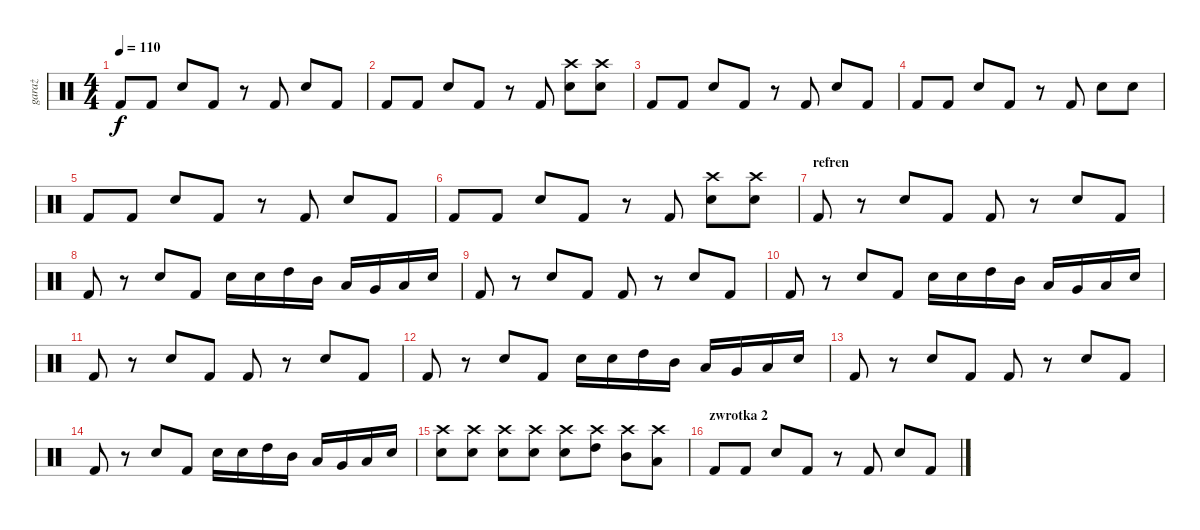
\track ("garaż" "garaż") {instrument percussion}
\staff {score}
\articulation defaults
\ts (4 4)
\tempo 110
\clef neutral
\ks c "Kick (hit) 2".8{dy f} "Kick (hit) 2".8 "Snare (hit) 2".8 "Kick (hit) 2".8
r.8 "Kick (hit) 2".8 "Snare (hit) 2".8 "Kick (hit) 2".8 |
"Kick (hit) 2".8 "Kick (hit) 2".8 "Snare (hit) 2".8 "Kick (hit) 2".8 r.8 "Kick (hit) 2".8 ("Crash high (hit)" "Snare (hit) 2").8 ("Crash high (hit)" "Snare (hit) 2").8 |
"Kick (hit) 2".8 "Kick (hit) 2".8 "Snare (hit) 2".8 "Kick (hit) 2".8 r.8 "Kick (hit) 2".8 "Snare (hit) 2".8 "Kick (hit) 2".8 |
"Kick (hit) 2".8 "Kick (hit) 2".8 "Snare (hit) 2".8 "Kick (hit) 2".8 r.8 "Kick (hit) 2".8 "Snare (hit) 2".8 "Snare (hit) 2".8 |
"Kick (hit) 2".8 "Kick (hit) 2".8 "Snare (hit) 2".8 "Kick (hit) 2".8 r.8 "Kick (hit) 2".8 "Snare (hit) 2".8 "Kick (hit) 2".8 |
"Kick (hit) 2".8 "Kick (hit) 2".8 "Snare (hit) 2".8 "Kick (hit) 2".8 r.8 "Kick (hit) 2".8 ("Crash high (hit)" "Snare (hit) 2").8 ("Crash high (hit)" "Snare (hit) 2").8 |
\section ("" "refren")
"Kick (hit) 2".8 r.8 "Snare (hit) 2".8 "Kick (hit) 2".8 "Kick (hit) 2".8 r.8 "Snare (hit) 2".8 "Kick (hit) 2".8 |
"Kick (hit) 2".8 r.8 "Snare (hit) 2".8 "Kick (hit) 2".8 "Snare (hit) 2".16 "Snare (hit) 2".16 "High Tom (hit)".16 "Mid Tom (hit)".16 "Low Tom (hit)".16 "Very Low Tom (hit)".16 "Low Floor Tom (hit)".16 "Snare (hit) 2".16 |
"Kick (hit) 2".8 r.8 "Snare (hit) 2".8 "Kick (hit) 2".8 "Kick (hit) 2".8 r.8 "Snare (hit) 2".8 "Kick (hit) 2".8 |
"Kick (hit) 2".8 r.8 "Snare (hit) 2".8 "Kick (hit) 2".8 "Snare (hit) 2".16 "Snare (hit) 2".16 "High Tom (hit)".16 "Mid Tom (hit)".16 "Low Tom (hit)".16 "Very Low Tom (hit)".16 "Low Floor Tom (hit)".16 "Snare (hit) 2".16 |
"Kick (hit) 2".8 r.8 "Snare (hit) 2".8 "Kick (hit) 2".8 "Kick (hit) 2".8 r.8 "Snare (hit) 2".8 "Kick (hit) 2".8 |
"Kick (hit) 2".8 r.8 "Snare (hit) 2".8 "Kick (hit) 2".8 "Snare (hit) 2".16 "Snare (hit) 2".16 "High Tom (hit)".16 "Mid Tom (hit)".16 "Low Tom (hit)".16 "Very Low Tom (hit)".16 "Low Floor Tom (hit)".16 "Snare (hit) 2".16 |
"Kick (hit) 2".8 r.8 "Snare (hit) 2".8 "Kick (hit) 2".8 "Kick (hit) 2".8 r.8 "Snare (hit) 2".8 "Kick (hit) 2".8 |
"Kick (hit) 2".8 r.8 "Snare (hit) 2".8 "Kick (hit) 2".8 "Snare (hit) 2".16 "Snare (hit) 2".16 "High Tom (hit)".16 "Mid Tom (hit)".16 "Low Tom (hit)".16 "Very Low Tom (hit)".16 "Low Floor Tom (hit)".16 "Snare (hit) 2".16 |
("Crash high (hit)" "Snare (hit) 2").8 ("Crash high (hit)" "Snare (hit) 2").8 ("Crash high (hit)" "Snare (hit) 2").8 ("Crash high (hit)" "Snare (hit) 2").8 ("Crash high (hit)" "Snare (hit) 2").8 ("Crash high (hit)" "High Tom (hit)").8 ("Crash high (hit)" "Mid Tom (hit)").8 ("Crash high (hit)" "Low Tom (hit)").8 |
\section ("" "zwrotka 2")
"Kick (hit) 2".8 "Kick (hit) 2".8 "Snare (hit) 2".8 "Kick (hit) 2".8 r.8 "Kick (hit) 2".8 "Snare (hit) 2".8 "Kick (hit) 2".8
